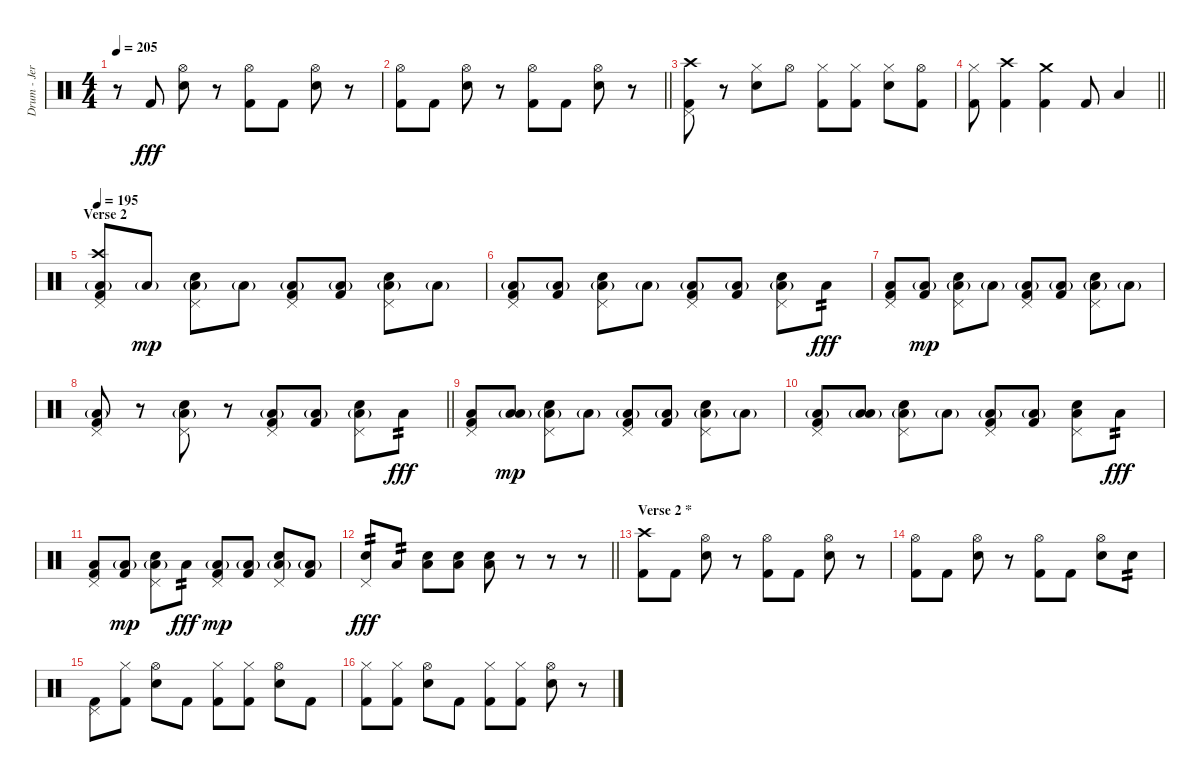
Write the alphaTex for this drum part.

\track ("Drum - Jerinx" "Drum - Jer") {instrument percussion}
\staff {score}
\articulation defaults
\ts (4 4)
\tempo 205
\clef neutral
\ks c
r.8{dy fff} "Kick (hit) 2".8 ("Hi-Hat (open)" "Snare (hit) 2").8 r.8 ("Hi-Hat (open)" "Kick (hit) 2").8 "Kick (hit) 2".8 ("Hi-Hat (open)" "Snare (hit) 2").8 r.8 |
\barLineRight lightlight
("Hi-Hat (open)" "Kick (hit) 2").8 "Kick (hit) 2".8 ("Hi-Hat (open)" "Snare (hit) 2").8 r.8 ("Hi-Hat (open)" "Kick (hit) 2").8 "Kick (hit) 2".8 ("Hi-Hat (open)" "Snare (hit) 2").8 r.8 |
("Pedal Hi-Hat (hit)" "Kick (hit) 2" "Crash high (hit)").8 r.8 ("Hi-Hat (closed)" "Snare (hit) 2").8 "Hi-Hat (open)".8 ("Hi-Hat (closed)" "Kick (hit) 2").8 ("Hi-Hat (closed)" "Kick (hit) 2").8 ("Hi-Hat (closed)" "Snare (hit) 2").8 ("Hi-Hat (open)" "Kick (hit) 2").8 |
\barLineRight lightlight
("Hi-Hat (closed)" "Kick (hit) 2").8 ("Kick (hit) 2" "Crash high (hit)").4 ("Kick (hit) 2" "Crash medium (hit)").4 "Kick (hit) 2".8 "Low Tom (hit)".4 |
\section ("" "Verse 2")
\tempo 195
("Pedal Hi-Hat (hit)" "Kick (hit) 2" "Low Floor Tom (hit)"{g} "Crash high (hit)").8 "Low Floor Tom (hit)"{g}.8{dy mp} ("Pedal Hi-Hat (hit)" "Snare (hit) 2" "Low Floor Tom (hit)"{g}).8 "Low Floor Tom (hit)"{g}.8 ("Pedal Hi-Hat (hit)" "Kick (hit) 2" "Low Floor Tom (hit)"{g}).8 ("Kick (hit) 2" "Low Floor Tom (hit)"{g}).8 ("Pedal Hi-Hat (hit)" "Snare (hit) 2" "Low Floor Tom (hit)"{g}).8 "Low Floor Tom (hit)"{g}.8 |
("Pedal Hi-Hat (hit)" "Kick (hit) 2" "Low Floor Tom (hit)"{g}).8 ("Kick (hit) 2" "Low Floor Tom (hit)"{g}).8 ("Pedal Hi-Hat (hit)" "Snare (hit) 2" "Low Floor Tom (hit)"{g}).8 "Low Floor Tom (hit)"{g}.8 ("Pedal Hi-Hat (hit)" "Kick (hit) 2" "Low Floor Tom (hit)"{g}).8 ("Kick (hit) 2" "Low Floor Tom (hit)"{g}).8 ("Pedal Hi-Hat (hit)" "Snare (hit) 2" "Low Floor Tom (hit)"{g}).8 "Low Floor Tom (hit)".8{tp 2 dy fff} |
("Pedal Hi-Hat (hit)" "Kick (hit) 2" "Low Floor Tom (hit)").8 ("Kick (hit) 2" "Low Floor Tom (hit)"{g}).8{dy mp} ("Pedal Hi-Hat (hit)" "Snare (hit) 2" "Low Floor Tom (hit)"{g}).8 "Low Floor Tom (hit)"{g}.8 ("Pedal Hi-Hat (hit)" "Kick (hit) 2" "Low Floor Tom (hit)"{g}).8 ("Kick (hit) 2" "Low Floor Tom (hit)"{g}).8 ("Pedal Hi-Hat (hit)" "Snare (hit) 2" "Low Floor Tom (hit)"{g}).8 "Low Floor Tom (hit)"{g}.8 |
\barLineRight lightlight
("Pedal Hi-Hat (hit)" "Kick (hit) 2" "Low Floor Tom (hit)"{g}).8 r.8 ("Pedal Hi-Hat (hit)" "Snare (hit) 2" "Low Floor Tom (hit)"{g}).8 r.8 ("Pedal Hi-Hat (hit)" "Kick (hit) 2" "Low Floor Tom (hit)"{g}).8 ("Kick (hit) 2" "Low Floor Tom (hit)"{g}).8 ("Pedal Hi-Hat (hit)" "Snare (hit) 2" "Low Floor Tom (hit)"{g}).8 "Low Floor Tom (hit)".8{tp 2 dy fff} |
("Pedal Hi-Hat (hit)" "Kick (hit) 2" "Low Floor Tom (hit)").8 ("Low Floor Tom (hit)" "Low Floor Tom (hit)"{g}).8{dy mp} ("Pedal Hi-Hat (hit)" "Snare (hit) 2" "Low Floor Tom (hit)"{g}).8 "Low Floor Tom (hit)"{g}.8 ("Pedal Hi-Hat (hit)" "Kick (hit) 2" "Low Floor Tom (hit)"{g}).8 ("Kick (hit) 2" "Low Floor Tom (hit)"{g}).8 ("Pedal Hi-Hat (hit)" "Snare (hit) 2" "Low Floor Tom (hit)"{g}).8 "Low Floor Tom (hit)"{g}.8 |
("Pedal Hi-Hat (hit)" "Kick (hit) 2" "Low Floor Tom (hit)"{g}).8 ("Low Floor Tom (hit)" "Low Floor Tom (hit)"{g}).8 ("Pedal Hi-Hat (hit)" "Snare (hit) 2" "Low Floor Tom (hit)"{g}).8 "Low Floor Tom (hit)"{g}.8 ("Pedal Hi-Hat (hit)" "Kick (hit) 2" "Low Floor Tom (hit)"{g}).8 ("Kick (hit) 2" "Low Floor Tom (hit)"{g}).8 ("Pedal Hi-Hat (hit)" "Snare (hit) 2" "Low Floor Tom (hit)").8 "Low Floor Tom (hit)".8{tp 2 dy fff} |
("Pedal Hi-Hat (hit)" "Kick (hit) 2" "Low Floor Tom (hit)").8 ("Kick (hit) 2" "Low Floor Tom (hit)"{g}).8{dy mp} ("Pedal Hi-Hat (hit)" "Snare (hit) 2" "Low Floor Tom (hit)"{g}).8 "Low Floor Tom (hit)".8{tp 2 dy fff} ("Pedal Hi-Hat (hit)" "Kick (hit) 2" "Low Floor Tom (hit)"{g}).8{dy mp} ("Kick (hit) 2" "Low Floor Tom (hit)"{g}).8 ("Pedal Hi-Hat (hit)" "Snare (hit) 2" "Low Floor Tom (hit)"{g}).8 ("Kick (hit) 2" "Low Floor Tom (hit)"{g}).8 |
\barLineRight lightlight
("Pedal Hi-Hat (hit)" "Snare (hit) 2").8{tp 2 dy fff} "Low Tom (hit)".8{tp 2} ("Snare (hit) 2" "Low Floor Tom (hit)").8 ("Snare (hit) 2" "Low Floor Tom (hit)").8 ("Snare (hit) 2" "Low Floor Tom (hit)").8 r.8 r.8 r.8 |
\section ("" "Verse 2 *")
("Kick (hit) 2" "Crash high (hit)").8 "Kick (hit) 2".8 ("Hi-Hat (open)" "Snare (hit) 2").8 r.8 ("Hi-Hat (open)" "Kick (hit) 2").8 "Kick (hit) 2".8 ("Hi-Hat (open)" "Snare (hit) 2").8 r.8 |
("Hi-Hat (open)" "Kick (hit) 2").8 "Kick (hit) 2".8 ("Hi-Hat (open)" "Snare (hit) 2").8 r.8 ("Hi-Hat (open)" "Kick (hit) 2").8 "Kick (hit) 2".8 ("Hi-Hat (open)" "Snare (hit) 2").8 "Snare (hit) 2".8{tp 2} |
("Pedal Hi-Hat (hit)" "Kick (hit) 2").8 ("Hi-Hat (closed)" "Kick (hit) 2").8 ("Hi-Hat (open)" "Snare (hit) 2").8 "Kick (hit) 2".8 ("Hi-Hat (closed)" "Kick (hit) 2").8 ("Hi-Hat (closed)" "Kick (hit) 2").8 ("Hi-Hat (open)" "Snare (hit) 2").8 "Kick (hit) 2".8 |
("Hi-Hat (closed)" "Kick (hit) 2").8 ("Hi-Hat (closed)" "Kick (hit) 2").8 ("Hi-Hat (open)" "Snare (hit) 2").8 "Kick (hit) 2".8 ("Hi-Hat (closed)" "Kick (hit) 2").8 ("Hi-Hat (closed)" "Kick (hit) 2").8 ("Hi-Hat (open)" "Snare (hit) 2").8 r.8
